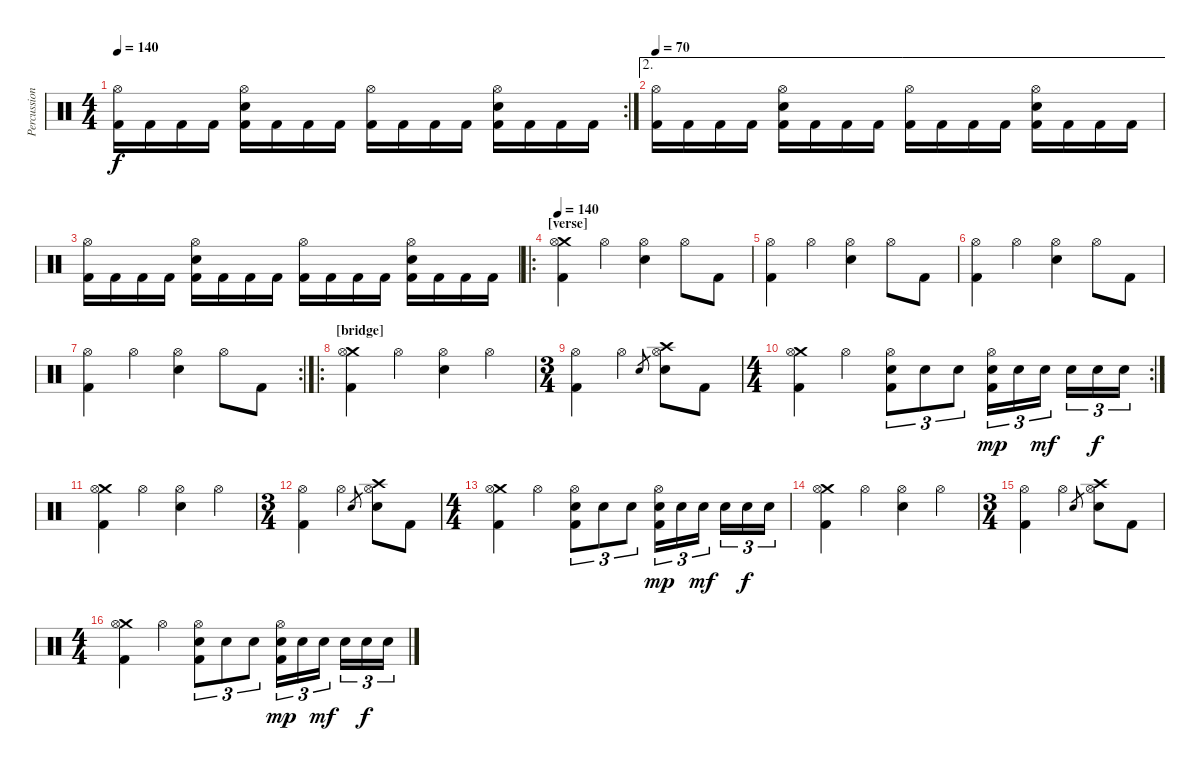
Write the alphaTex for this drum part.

\track ("Percussion" "Percussion") {instrument percussion}
\staff {score}
\articulation defaults
\rc 2
\ts (4 4)
\tempo 140
\clef neutral
\ks c
("Hi-Hat (open)" "Kick (hit) 2").16{dy f} "Kick (hit) 2".16 "Kick (hit) 2".16 "Kick (hit) 2".16 ("Hi-Hat (open)" "Electric Snare (hit)" "Kick (hit) 2").16 "Kick (hit) 2".16 "Kick (hit) 2".16 "Kick (hit) 2".16 ("Hi-Hat (open)" "Kick (hit) 2").16 "Kick (hit) 2".16 "Kick (hit) 2".16 "Kick (hit) 2".16 ("Hi-Hat (open)" "Electric Snare (hit)" "Kick (hit) 2").16 "Kick (hit) 2".16 "Kick (hit) 2".16 "Kick (hit) 2".16 |
\ae 2
\tempo 70
("Hi-Hat (open)" "Kick (hit) 2").16 "Kick (hit) 2".16 "Kick (hit) 2".16 "Kick (hit) 2".16 ("Hi-Hat (open)" "Electric Snare (hit)" "Kick (hit) 2").16 "Kick (hit) 2".16 "Kick (hit) 2".16 "Kick (hit) 2".16 ("Hi-Hat (open)" "Kick (hit) 2").16 "Kick (hit) 2".16 "Kick (hit) 2".16 "Kick (hit) 2".16 ("Hi-Hat (open)" "Electric Snare (hit)" "Kick (hit) 2").16 "Kick (hit) 2".16 "Kick (hit) 2".16 "Kick (hit) 2".16 |
("Hi-Hat (open)" "Kick (hit) 2").16 "Kick (hit) 2".16 "Kick (hit) 2".16 "Kick (hit) 2".16 ("Hi-Hat (open)" "Electric Snare (hit)" "Kick (hit) 2").16 "Kick (hit) 2".16 "Kick (hit) 2".16 "Kick (hit) 2".16 ("Hi-Hat (open)" "Kick (hit) 2").16 "Kick (hit) 2".16 "Kick (hit) 2".16 "Kick (hit) 2".16 ("Hi-Hat (open)" "Electric Snare (hit)" "Kick (hit) 2").16 "Kick (hit) 2".16 "Kick (hit) 2".16 "Kick (hit) 2".16 |
\ro
\section ("" "[verse]")
\tempo 140
("Crash medium (hit)" "Hi-Hat (open)" "Kick (hit) 2").4 "Hi-Hat (open)".4 ("Hi-Hat (open)" "Electric Snare (hit)").4 "Hi-Hat (open)".8 "Kick (hit) 2".8 |
("Hi-Hat (open)" "Kick (hit) 2").4 "Hi-Hat (open)".4 ("Hi-Hat (open)" "Electric Snare (hit)").4 "Hi-Hat (open)".8 "Kick (hit) 2".8 |
("Hi-Hat (open)" "Kick (hit) 2").4 "Hi-Hat (open)".4 ("Hi-Hat (open)" "Electric Snare (hit)").4 "Hi-Hat (open)".8 "Kick (hit) 2".8 |
\rc 2
("Hi-Hat (open)" "Kick (hit) 2").4 "Hi-Hat (open)".4 ("Hi-Hat (open)" "Electric Snare (hit)").4 "Hi-Hat (open)".8 "Kick (hit) 2".8 |
\ro
\section ("" "[bridge]")
("Crash medium (hit)" "Hi-Hat (open)" "Kick (hit) 2").4 "Hi-Hat (open)".4 ("Hi-Hat (open)" "Electric Snare (hit)").4 "Hi-Hat (open)".4 |
\ts (3 4)
("Hi-Hat (open)" "Kick (hit) 2").4 "Hi-Hat (open)".4 "Electric Snare (hit)".8{gr} ("Crash high (hit)" "Hi-Hat (open)" "Electric Snare (hit)").8 "Kick (hit) 2".8 |
\rc 2
\ts (4 4)
("Crash medium (hit)" "Hi-Hat (open)" "Kick (hit) 2").4 "Hi-Hat (open)".4 ("Hi-Hat (open)" "Electric Snare (hit)" "Kick (hit) 2").8{tu (3 2)} "Electric Snare (hit)".8{tu (3 2)} "Electric Snare (hit)".8{tu (3 2)} ("Hi-Hat (open)" "Electric Snare (hit)" "Kick (hit) 2").16{tu (3 2) dy mp} "Electric Snare (hit)".16{tu (3 2)} "Electric Snare (hit)".16{tu (3 2) dy mf} "Electric Snare (hit)".16{tu (3 2)} "Electric Snare (hit)".16{tu (3 2) dy f} "Electric Snare (hit)".16{tu (3 2)} |
("Crash medium (hit)" "Hi-Hat (open)" "Kick (hit) 2").4 "Hi-Hat (open)".4 ("Hi-Hat (open)" "Electric Snare (hit)").4 "Hi-Hat (open)".4 |
\ts (3 4)
("Hi-Hat (open)" "Kick (hit) 2").4 "Hi-Hat (open)".4 "Electric Snare (hit)".8{gr} ("Crash high (hit)" "Hi-Hat (open)" "Electric Snare (hit)").8 "Kick (hit) 2".8 |
\ts (4 4)
("Crash medium (hit)" "Hi-Hat (open)" "Kick (hit) 2").4 "Hi-Hat (open)".4 ("Hi-Hat (open)" "Electric Snare (hit)" "Kick (hit) 2").8{tu (3 2)} "Electric Snare (hit)".8{tu (3 2)} "Electric Snare (hit)".8{tu (3 2)} ("Hi-Hat (open)" "Electric Snare (hit)" "Kick (hit) 2").16{tu (3 2) dy mp} "Electric Snare (hit)".16{tu (3 2)} "Electric Snare (hit)".16{tu (3 2) dy mf} "Electric Snare (hit)".16{tu (3 2)} "Electric Snare (hit)".16{tu (3 2) dy f} "Electric Snare (hit)".16{tu (3 2)} |
("Crash medium (hit)" "Hi-Hat (open)" "Kick (hit) 2").4 "Hi-Hat (open)".4 ("Hi-Hat (open)" "Electric Snare (hit)").4 "Hi-Hat (open)".4 |
\ts (3 4)
("Hi-Hat (open)" "Kick (hit) 2").4 "Hi-Hat (open)".4 "Electric Snare (hit)".8{gr} ("Crash high (hit)" "Hi-Hat (open)" "Electric Snare (hit)").8 "Kick (hit) 2".8 |
\ts (4 4)
("Crash medium (hit)" "Hi-Hat (open)" "Kick (hit) 2").4 "Hi-Hat (open)".4 ("Hi-Hat (open)" "Electric Snare (hit)" "Kick (hit) 2").8{tu (3 2)} "Electric Snare (hit)".8{tu (3 2)} "Electric Snare (hit)".8{tu (3 2)} ("Hi-Hat (open)" "Electric Snare (hit)" "Kick (hit) 2").16{tu (3 2) dy mp} "Electric Snare (hit)".16{tu (3 2)} "Electric Snare (hit)".16{tu (3 2) dy mf} "Electric Snare (hit)".16{tu (3 2)} "Electric Snare (hit)".16{tu (3 2) dy f} "Electric Snare (hit)".16{tu (3 2)}
